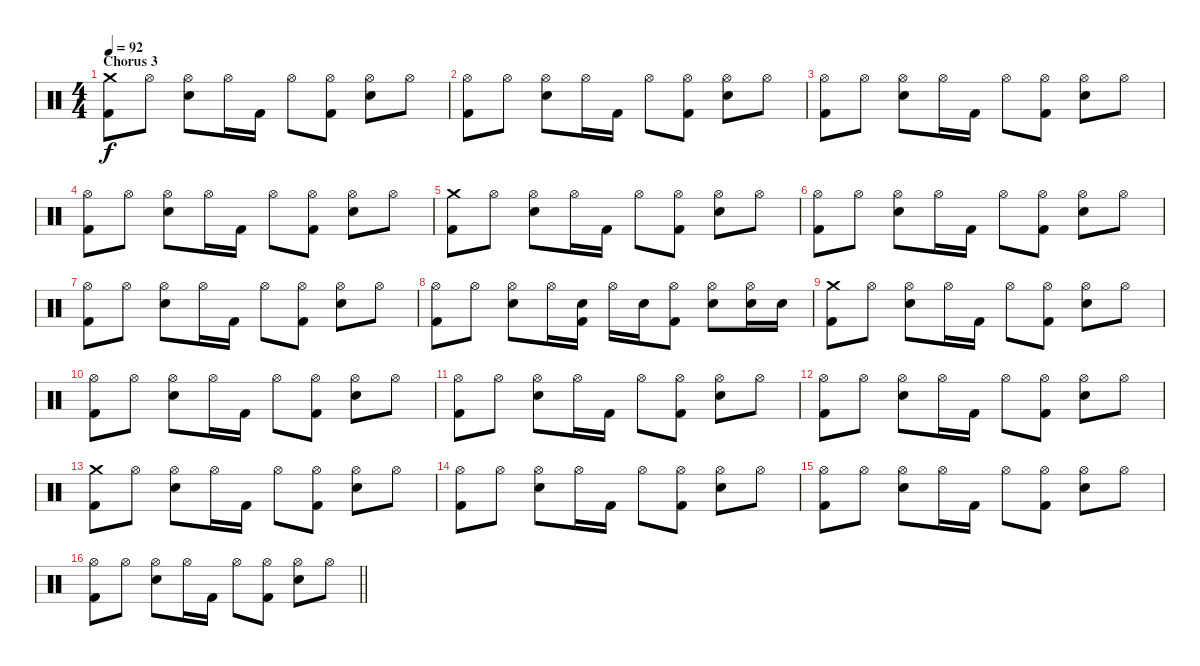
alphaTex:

\track "" {instrument percussion}
\staff {score}
\articulation defaults
\ts (4 4)
\section ("" "Chorus 3")
\tempo 92
\clef neutral
\ks c
("Crash medium (hit)" "Kick (hit) 2").8{dy f} "Hi-Hat (open)".8 ("Hi-Hat (open)" "Electric Snare (hit)").8 "Hi-Hat (open)".16 "Kick (hit) 2".16 "Hi-Hat (open)".8 ("Hi-Hat (open)" "Kick (hit) 2").8 ("Hi-Hat (open)" "Electric Snare (hit)").8 "Hi-Hat (open)".8 |
("Hi-Hat (open)" "Kick (hit) 2").8 "Hi-Hat (open)".8 ("Hi-Hat (open)" "Electric Snare (hit)").8 "Hi-Hat (open)".16 "Kick (hit) 2".16 "Hi-Hat (open)".8 ("Hi-Hat (open)" "Kick (hit) 2").8 ("Hi-Hat (open)" "Electric Snare (hit)").8 "Hi-Hat (open)".8 |
("Hi-Hat (open)" "Kick (hit) 2").8 "Hi-Hat (open)".8 ("Hi-Hat (open)" "Electric Snare (hit)").8 "Hi-Hat (open)".16 "Kick (hit) 2".16 "Hi-Hat (open)".8 ("Hi-Hat (open)" "Kick (hit) 2").8 ("Hi-Hat (open)" "Electric Snare (hit)").8 "Hi-Hat (open)".8 |
("Hi-Hat (open)" "Kick (hit) 2").8 "Hi-Hat (open)".8 ("Hi-Hat (open)" "Electric Snare (hit)").8 "Hi-Hat (open)".16 "Kick (hit) 2".16 "Hi-Hat (open)".8 ("Hi-Hat (open)" "Kick (hit) 2").8 ("Hi-Hat (open)" "Electric Snare (hit)").8 "Hi-Hat (open)".8 |
("Crash medium (hit)" "Kick (hit) 2").8 "Hi-Hat (open)".8 ("Hi-Hat (open)" "Electric Snare (hit)").8 "Hi-Hat (open)".16 "Kick (hit) 2".16 "Hi-Hat (open)".8 ("Hi-Hat (open)" "Kick (hit) 2").8 ("Hi-Hat (open)" "Electric Snare (hit)").8 "Hi-Hat (open)".8 |
("Hi-Hat (open)" "Kick (hit) 2").8 "Hi-Hat (open)".8 ("Hi-Hat (open)" "Electric Snare (hit)").8 "Hi-Hat (open)".16 "Kick (hit) 2".16 "Hi-Hat (open)".8 ("Hi-Hat (open)" "Kick (hit) 2").8 ("Hi-Hat (open)" "Electric Snare (hit)").8 "Hi-Hat (open)".8 |
("Hi-Hat (open)" "Kick (hit) 2").8 "Hi-Hat (open)".8 ("Hi-Hat (open)" "Electric Snare (hit)").8 "Hi-Hat (open)".16 "Kick (hit) 2".16 "Hi-Hat (open)".8 ("Hi-Hat (open)" "Kick (hit) 2").8 ("Hi-Hat (open)" "Electric Snare (hit)").8 "Hi-Hat (open)".8 |
("Hi-Hat (open)" "Kick (hit) 2").8 "Hi-Hat (open)".8 ("Hi-Hat (open)" "Electric Snare (hit)").8 "Hi-Hat (open)".16 ("Electric Snare (hit)" "Kick (hit) 2").16 "Hi-Hat (open)".16 "Electric Snare (hit)".16 ("Hi-Hat (open)" "Kick (hit) 2").8 ("Hi-Hat (open)" "Electric Snare (hit)").8 ("Hi-Hat (open)" "Electric Snare (hit)").16 "Electric Snare (hit)".16 |
("Crash medium (hit)" "Kick (hit) 2").8 "Hi-Hat (open)".8 ("Hi-Hat (open)" "Electric Snare (hit)").8 "Hi-Hat (open)".16 "Kick (hit) 2".16 "Hi-Hat (open)".8 ("Hi-Hat (open)" "Kick (hit) 2").8 ("Hi-Hat (open)" "Electric Snare (hit)").8 "Hi-Hat (open)".8 |
("Hi-Hat (open)" "Kick (hit) 2").8 "Hi-Hat (open)".8 ("Hi-Hat (open)" "Electric Snare (hit)").8 "Hi-Hat (open)".16 "Kick (hit) 2".16 "Hi-Hat (open)".8 ("Hi-Hat (open)" "Kick (hit) 2").8 ("Hi-Hat (open)" "Electric Snare (hit)").8 "Hi-Hat (open)".8 |
("Hi-Hat (open)" "Kick (hit) 2").8 "Hi-Hat (open)".8 ("Hi-Hat (open)" "Electric Snare (hit)").8 "Hi-Hat (open)".16 "Kick (hit) 2".16 "Hi-Hat (open)".8 ("Hi-Hat (open)" "Kick (hit) 2").8 ("Hi-Hat (open)" "Electric Snare (hit)").8 "Hi-Hat (open)".8 |
("Hi-Hat (open)" "Kick (hit) 2").8 "Hi-Hat (open)".8 ("Hi-Hat (open)" "Electric Snare (hit)").8 "Hi-Hat (open)".16 "Kick (hit) 2".16 "Hi-Hat (open)".8 ("Hi-Hat (open)" "Kick (hit) 2").8 ("Hi-Hat (open)" "Electric Snare (hit)").8 "Hi-Hat (open)".8 |
("Crash medium (hit)" "Kick (hit) 2").8 "Hi-Hat (open)".8 ("Hi-Hat (open)" "Electric Snare (hit)").8 "Hi-Hat (open)".16 "Kick (hit) 2".16 "Hi-Hat (open)".8 ("Hi-Hat (open)" "Kick (hit) 2").8 ("Hi-Hat (open)" "Electric Snare (hit)").8 "Hi-Hat (open)".8 |
("Hi-Hat (open)" "Kick (hit) 2").8 "Hi-Hat (open)".8 ("Hi-Hat (open)" "Electric Snare (hit)").8 "Hi-Hat (open)".16 "Kick (hit) 2".16 "Hi-Hat (open)".8 ("Hi-Hat (open)" "Kick (hit) 2").8 ("Hi-Hat (open)" "Electric Snare (hit)").8 "Hi-Hat (open)".8 |
("Hi-Hat (open)" "Kick (hit) 2").8 "Hi-Hat (open)".8 ("Hi-Hat (open)" "Electric Snare (hit)").8 "Hi-Hat (open)".16 "Kick (hit) 2".16 "Hi-Hat (open)".8 ("Hi-Hat (open)" "Kick (hit) 2").8 ("Hi-Hat (open)" "Electric Snare (hit)").8 "Hi-Hat (open)".8 |
\barLineRight lightlight
("Hi-Hat (open)" "Kick (hit) 2").8 "Hi-Hat (open)".8 ("Hi-Hat (open)" "Electric Snare (hit)").8 "Hi-Hat (open)".16 "Kick (hit) 2".16 "Hi-Hat (open)".8 ("Hi-Hat (open)" "Kick (hit) 2").8 ("Hi-Hat (open)" "Electric Snare (hit)").8 "Hi-Hat (open)".8
